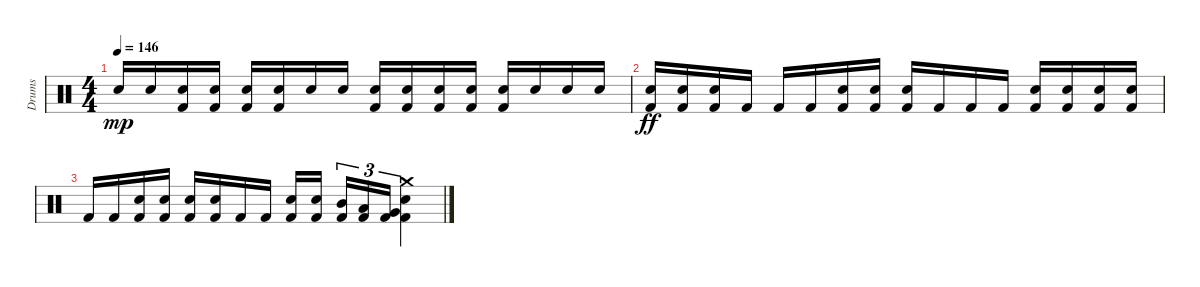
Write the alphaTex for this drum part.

\track ("Drums" "Drums") {instrument percussion}
\staff {score}
\articulation defaults
\ts (4 4)
\tempo 146
\clef neutral
\ks c "Snare (hit) 2".16{dy mp} "Snare (hit) 2".16
("Kick (hit) 2" "Snare (hit) 2").16 ("Kick (hit) 2" "Snare (hit) 2").16 ("Kick (hit) 2" "Snare (hit) 2").16 ("Kick (hit) 2" "Snare (hit) 2").16 "Snare (hit) 2".16 "Snare (hit) 2".16 ("Kick (hit) 2" "Snare (hit) 2").16 ("Kick (hit) 2" "Snare (hit) 2").16 ("Kick (hit) 2" "Snare (hit) 2").16 ("Kick (hit) 2" "Snare (hit) 2").16 ("Kick (hit) 2" "Snare (hit) 2").16 "Snare (hit) 2".16 "Snare (hit) 2".16 "Snare (hit) 2".16 |
("Kick (hit) 2" "Electric Snare (hit)").16{dy ff} ("Kick (hit) 2" "Electric Snare (hit)").16 ("Kick (hit) 2" "Electric Snare (hit)").16 "Kick (hit) 2".16 "Kick (hit) 2".16 "Kick (hit) 2".16 ("Kick (hit) 2" "Electric Snare (hit)").16 ("Kick (hit) 2" "Electric Snare (hit)").16 ("Kick (hit) 2" "Electric Snare (hit)").16 "Kick (hit) 2".16 "Kick (hit) 2".16 "Kick (hit) 2".16 ("Kick (hit) 2" "Electric Snare (hit)").16 ("Kick (hit) 2" "Electric Snare (hit)").16 ("Kick (hit) 2" "Electric Snare (hit)").16 ("Kick (hit) 2" "Electric Snare (hit)").16 |
"Kick (hit) 2".16 "Kick (hit) 2".16 ("Kick (hit) 2" "Electric Snare (hit)").16 ("Kick (hit) 2" "Electric Snare (hit)").16 ("Kick (hit) 2" "Electric Snare (hit)").16 ("Kick (hit) 2" "Electric Snare (hit)").16 "Kick (hit) 2".16 "Kick (hit) 2".16 ("Kick (hit) 2" "Electric Snare (hit)").16 ("Kick (hit) 2" "Electric Snare (hit)").16 ("Kick (hit) 2" "Mid Tom (hit)").16{tu (3 2)} ("Kick (hit) 2" "Low Tom (hit)").16{tu (3 2)} ("Kick (hit) 2" "Very Low Tom (hit)").16{tu (3 2)} ("Kick (hit) 2" "Electric Snare (hit)" "Crash medium (hit)").4
